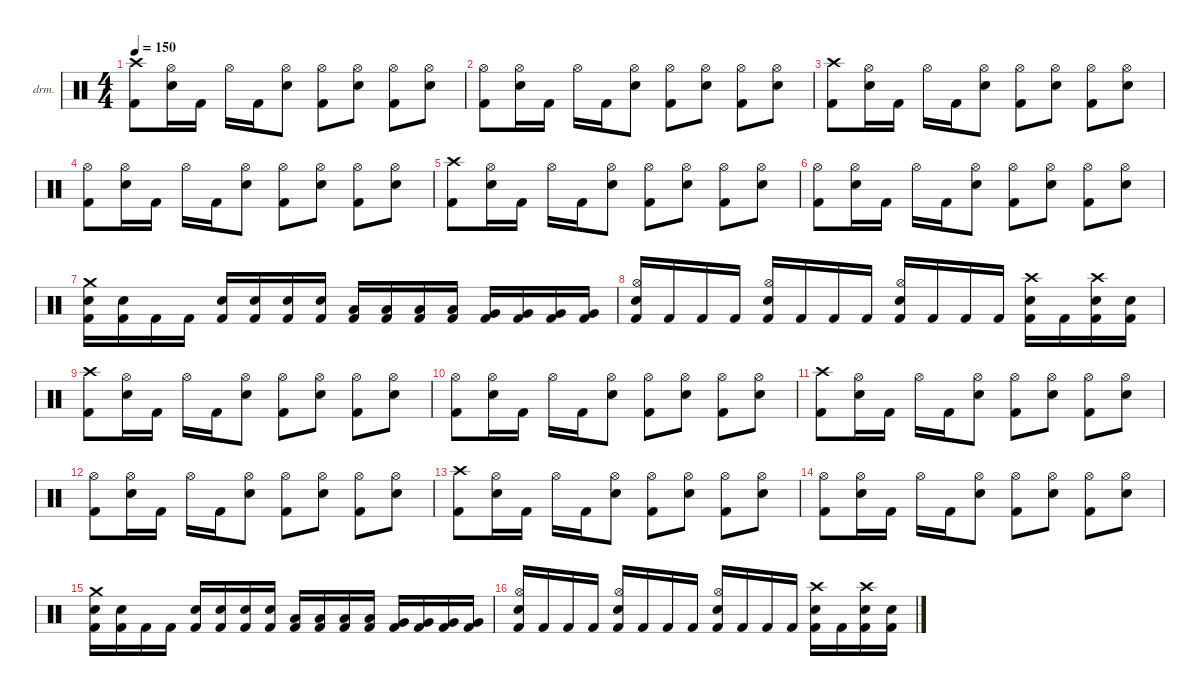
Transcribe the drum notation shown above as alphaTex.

\defaultSystemsLayout 4
\hideDynamics
\bracketExtendMode nobrackets
\firstSystemTrackNameOrientation horizontal
\otherSystemsTrackNameOrientation horizontal
\track ("Drumkit" "drm.") {instrument percussion}
\staff {score}
\articulation defaults
\ts (4 4)
\tempo 150
\clef neutral
\ks c
("Crash high (hit)" "Kick (hit) 2").8{dy f} ("Hi-Hat (open)" "Snare (hit) 2").16 "Kick (hit) 2".16 "Hi-Hat (open)".16 "Kick (hit) 2".16 ("Hi-Hat (open)" "Snare (hit) 2").8 ("Hi-Hat (open)" "Kick (hit) 2").8 ("Hi-Hat (open)" "Snare (hit) 2").8 ("Hi-Hat (open)" "Kick (hit) 2").8 ("Hi-Hat (open)" "Snare (hit) 2").8 |
("Hi-Hat (open)" "Kick (hit) 2").8 ("Hi-Hat (open)" "Snare (hit) 2").16 "Kick (hit) 2".16 "Hi-Hat (open)".16 "Kick (hit) 2".16 ("Hi-Hat (open)" "Snare (hit) 2").8 ("Hi-Hat (open)" "Kick (hit) 2").8 ("Hi-Hat (open)" "Snare (hit) 2").8 ("Hi-Hat (open)" "Kick (hit) 2").8 ("Hi-Hat (open)" "Snare (hit) 2").8 |
("Crash high (hit)" "Kick (hit) 2").8 ("Hi-Hat (open)" "Snare (hit) 2").16 "Kick (hit) 2".16 "Hi-Hat (open)".16 "Kick (hit) 2".16 ("Hi-Hat (open)" "Snare (hit) 2").8 ("Hi-Hat (open)" "Kick (hit) 2").8 ("Hi-Hat (open)" "Snare (hit) 2").8 ("Hi-Hat (open)" "Kick (hit) 2").8 ("Hi-Hat (open)" "Snare (hit) 2").8 |
("Hi-Hat (open)" "Kick (hit) 2").8 ("Hi-Hat (open)" "Snare (hit) 2").16 "Kick (hit) 2".16 "Hi-Hat (open)".16 "Kick (hit) 2".16 ("Hi-Hat (open)" "Snare (hit) 2").8 ("Hi-Hat (open)" "Kick (hit) 2").8 ("Hi-Hat (open)" "Snare (hit) 2").8 ("Hi-Hat (open)" "Kick (hit) 2").8 ("Hi-Hat (open)" "Snare (hit) 2").8 |
("Crash high (hit)" "Kick (hit) 2").8 ("Hi-Hat (open)" "Snare (hit) 2").16 "Kick (hit) 2".16 "Hi-Hat (open)".16 "Kick (hit) 2".16 ("Hi-Hat (open)" "Snare (hit) 2").8 ("Hi-Hat (open)" "Kick (hit) 2").8 ("Hi-Hat (open)" "Snare (hit) 2").8 ("Hi-Hat (open)" "Kick (hit) 2").8 ("Hi-Hat (open)" "Snare (hit) 2").8 |
("Hi-Hat (open)" "Kick (hit) 2").8 ("Hi-Hat (open)" "Snare (hit) 2").16 "Kick (hit) 2".16 "Hi-Hat (open)".16 "Kick (hit) 2".16 ("Hi-Hat (open)" "Snare (hit) 2").8 ("Hi-Hat (open)" "Kick (hit) 2").8 ("Hi-Hat (open)" "Snare (hit) 2").8 ("Hi-Hat (open)" "Kick (hit) 2").8 ("Hi-Hat (open)" "Snare (hit) 2").8 |
("Crash medium (hit)" "Snare (hit) 2" "Kick (hit) 2").16{dy mf} ("Snare (hit) 2" "Kick (hit) 2").16 "Kick (hit) 2".16 "Kick (hit) 2".16 ("Snare (hit) 2" "Kick (hit) 2").16 ("Snare (hit) 2" "Kick (hit) 2").16 ("Snare (hit) 2" "Kick (hit) 2").16 ("Snare (hit) 2" "Kick (hit) 2").16 ("Low Tom (hit)" "Kick (hit) 2").16 ("Low Tom (hit)" "Kick (hit) 2").16 ("Low Tom (hit)" "Kick (hit) 2").16 ("Low Tom (hit)" "Kick (hit) 2").16 ("Very Low Tom (hit)" "Kick (hit) 2").16 ("Very Low Tom (hit)" "Kick (hit) 2").16 ("Very Low Tom (hit)" "Kick (hit) 2").16 ("Very Low Tom (hit)" "Kick (hit) 2").16 |
("Hi-Hat (open)" "Snare (hit) 2" "Kick (hit) 2").16 "Kick (hit) 2".16 "Kick (hit) 2".16 "Kick (hit) 2".16 ("Hi-Hat (open)" "Snare (hit) 2" "Kick (hit) 2").16 "Kick (hit) 2".16 "Kick (hit) 2".16 "Kick (hit) 2".16 ("Hi-Hat (open)" "Snare (hit) 2" "Kick (hit) 2").16 "Kick (hit) 2".16 "Kick (hit) 2".16 "Kick (hit) 2".16 ("Crash high (hit)" "Snare (hit) 2" "Kick (hit) 2").16 "Kick (hit) 2".16 ("Crash high (hit)" "Snare (hit) 2" "Kick (hit) 2").16 ("Snare (hit) 2" "Kick (hit) 2").16 |
("Crash high (hit)" "Kick (hit) 2").8{dy f} ("Hi-Hat (open)" "Snare (hit) 2").16 "Kick (hit) 2".16 "Hi-Hat (open)".16 "Kick (hit) 2".16 ("Hi-Hat (open)" "Snare (hit) 2").8 ("Hi-Hat (open)" "Kick (hit) 2").8 ("Hi-Hat (open)" "Snare (hit) 2").8 ("Hi-Hat (open)" "Kick (hit) 2").8 ("Hi-Hat (open)" "Snare (hit) 2").8 |
("Hi-Hat (open)" "Kick (hit) 2").8 ("Hi-Hat (open)" "Snare (hit) 2").16 "Kick (hit) 2".16 "Hi-Hat (open)".16 "Kick (hit) 2".16 ("Hi-Hat (open)" "Snare (hit) 2").8 ("Hi-Hat (open)" "Kick (hit) 2").8 ("Hi-Hat (open)" "Snare (hit) 2").8 ("Hi-Hat (open)" "Kick (hit) 2").8 ("Hi-Hat (open)" "Snare (hit) 2").8 |
("Crash high (hit)" "Kick (hit) 2").8 ("Hi-Hat (open)" "Snare (hit) 2").16 "Kick (hit) 2".16 "Hi-Hat (open)".16 "Kick (hit) 2".16 ("Hi-Hat (open)" "Snare (hit) 2").8 ("Hi-Hat (open)" "Kick (hit) 2").8 ("Hi-Hat (open)" "Snare (hit) 2").8 ("Hi-Hat (open)" "Kick (hit) 2").8 ("Hi-Hat (open)" "Snare (hit) 2").8 |
("Hi-Hat (open)" "Kick (hit) 2").8 ("Hi-Hat (open)" "Snare (hit) 2").16 "Kick (hit) 2".16 "Hi-Hat (open)".16 "Kick (hit) 2".16 ("Hi-Hat (open)" "Snare (hit) 2").8 ("Hi-Hat (open)" "Kick (hit) 2").8 ("Hi-Hat (open)" "Snare (hit) 2").8 ("Hi-Hat (open)" "Kick (hit) 2").8 ("Hi-Hat (open)" "Snare (hit) 2").8 |
("Crash high (hit)" "Kick (hit) 2").8 ("Hi-Hat (open)" "Snare (hit) 2").16 "Kick (hit) 2".16 "Hi-Hat (open)".16 "Kick (hit) 2".16 ("Hi-Hat (open)" "Snare (hit) 2").8 ("Hi-Hat (open)" "Kick (hit) 2").8 ("Hi-Hat (open)" "Snare (hit) 2").8 ("Hi-Hat (open)" "Kick (hit) 2").8 ("Hi-Hat (open)" "Snare (hit) 2").8 |
("Hi-Hat (open)" "Kick (hit) 2").8 ("Hi-Hat (open)" "Snare (hit) 2").16 "Kick (hit) 2".16 "Hi-Hat (open)".16 "Kick (hit) 2".16 ("Hi-Hat (open)" "Snare (hit) 2").8 ("Hi-Hat (open)" "Kick (hit) 2").8 ("Hi-Hat (open)" "Snare (hit) 2").8 ("Hi-Hat (open)" "Kick (hit) 2").8 ("Hi-Hat (open)" "Snare (hit) 2").8 |
("Crash medium (hit)" "Snare (hit) 2" "Kick (hit) 2").16{dy mf} ("Snare (hit) 2" "Kick (hit) 2").16 "Kick (hit) 2".16 "Kick (hit) 2".16 ("Snare (hit) 2" "Kick (hit) 2").16 ("Snare (hit) 2" "Kick (hit) 2").16 ("Snare (hit) 2" "Kick (hit) 2").16 ("Snare (hit) 2" "Kick (hit) 2").16 ("Low Tom (hit)" "Kick (hit) 2").16 ("Low Tom (hit)" "Kick (hit) 2").16 ("Low Tom (hit)" "Kick (hit) 2").16 ("Low Tom (hit)" "Kick (hit) 2").16 ("Very Low Tom (hit)" "Kick (hit) 2").16 ("Very Low Tom (hit)" "Kick (hit) 2").16 ("Very Low Tom (hit)" "Kick (hit) 2").16 ("Very Low Tom (hit)" "Kick (hit) 2").16 |
("Hi-Hat (open)" "Snare (hit) 2" "Kick (hit) 2").16 "Kick (hit) 2".16 "Kick (hit) 2".16 "Kick (hit) 2".16 ("Hi-Hat (open)" "Snare (hit) 2" "Kick (hit) 2").16 "Kick (hit) 2".16 "Kick (hit) 2".16 "Kick (hit) 2".16 ("Hi-Hat (open)" "Snare (hit) 2" "Kick (hit) 2").16 "Kick (hit) 2".16 "Kick (hit) 2".16 "Kick (hit) 2".16 ("Crash high (hit)" "Snare (hit) 2" "Kick (hit) 2").16 "Kick (hit) 2".16 ("Crash high (hit)" "Snare (hit) 2" "Kick (hit) 2").16 ("Snare (hit) 2" "Kick (hit) 2").16
